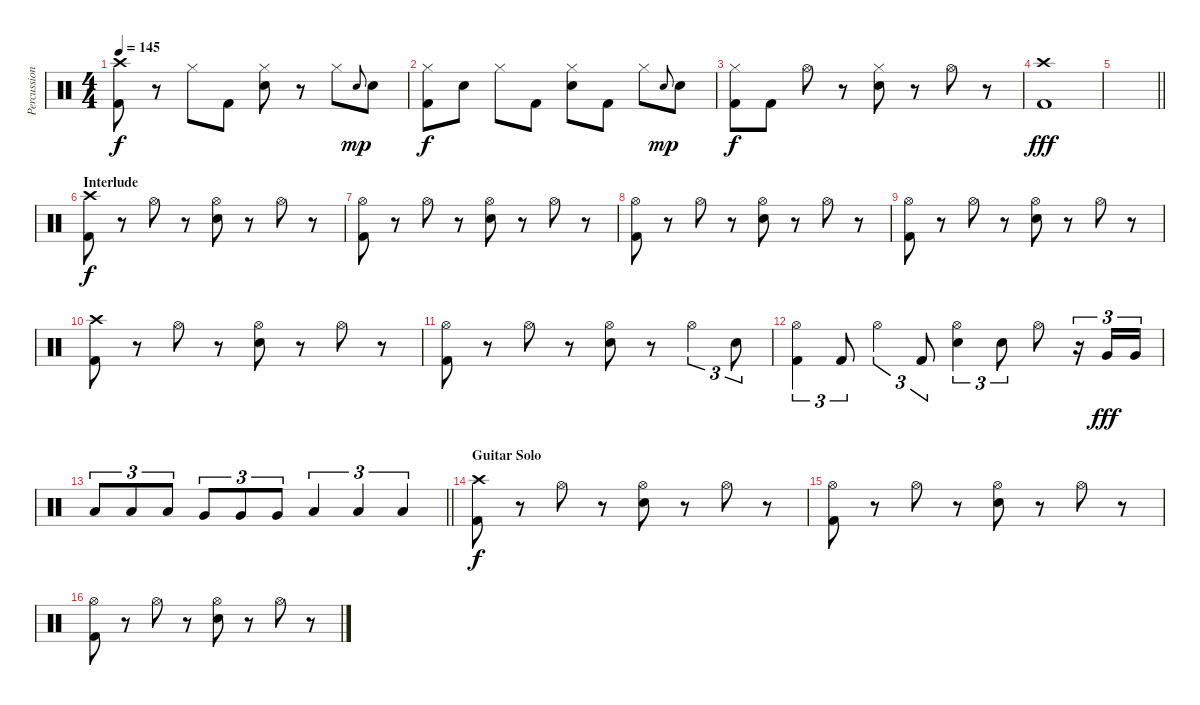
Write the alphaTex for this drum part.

\track ("Percussion" "Percussion") {instrument percussion}
\staff {score}
\articulation defaults
\ts (4 4)
\tempo 145
\clef neutral
\ks c
("Crash high (hit)" "Kick (hit) 2").8{dy f} r.8 "Hi-Hat (closed)".8 "Kick (hit) 2".8 ("Hi-Hat (closed)" "Snare (hit) 2").8 r.8 "Hi-Hat (closed)".8 "Snare (hit) 2".8{gr onbeat dy mp} "Snare (hit) 2".8 |
("Hi-Hat (closed)" "Kick (hit) 2").8{dy f} "Snare (hit) 2".8 "Hi-Hat (closed)".8 "Kick (hit) 2".8 ("Hi-Hat (closed)" "Snare (hit) 2").8 "Kick (hit) 2".8 "Hi-Hat (closed)".8 "Snare (hit) 2".8{gr onbeat dy mp} "Snare (hit) 2".8 |
("Hi-Hat (closed)" "Kick (hit) 2").8{dy f} "Kick (hit) 2".8 "Hi-Hat (open)".8 r.8 ("Hi-Hat (closed)" "Snare (hit) 2").8 r.8 "Hi-Hat (open)".8 r.8 |
("Crash high (hit)" "Kick (hit) 2").1{dy fff} |
\barLineRight lightlight
|
\section ("" "Interlude")
("Crash high (hit)" "Kick (hit) 2").8{dy f} r.8 "Hi-Hat (open)".8 r.8 ("Hi-Hat (open)" "Snare (hit) 2").8 r.8 "Hi-Hat (open)".8 r.8 |
("Hi-Hat (open)" "Kick (hit) 2").8 r.8 "Hi-Hat (open)".8 r.8 ("Hi-Hat (open)" "Snare (hit) 2").8 r.8 "Hi-Hat (open)".8 r.8 |
("Hi-Hat (open)" "Kick (hit) 2").8 r.8 "Hi-Hat (open)".8 r.8 ("Hi-Hat (open)" "Snare (hit) 2").8 r.8 "Hi-Hat (open)".8 r.8 |
("Hi-Hat (open)" "Kick (hit) 2").8 r.8 "Hi-Hat (open)".8 r.8 ("Hi-Hat (open)" "Snare (hit) 2").8 r.8 "Hi-Hat (open)".8 r.8 |
("Crash high (hit)" "Kick (hit) 2").8 r.8 "Hi-Hat (open)".8 r.8 ("Hi-Hat (open)" "Snare (hit) 2").8 r.8 "Hi-Hat (open)".8 r.8 |
("Hi-Hat (open)" "Kick (hit) 2").8 r.8 "Hi-Hat (open)".8 r.8 ("Hi-Hat (open)" "Snare (hit) 2").8 r.8 "Hi-Hat (open)".4{tu (3 2)} "Snare (hit) 2".8{tu (3 2)} |
("Hi-Hat (open)" "Kick (hit) 2").4{tu (3 2)} "Kick (hit) 2".8{tu (3 2)} "Hi-Hat (open)".4{tu (3 2)} "Kick (hit) 2".8{tu (3 2)} ("Hi-Hat (open)" "Snare (hit) 2").4{tu (3 2)} "Snare (hit) 2".8{tu (3 2)} "Hi-Hat (open)".8 r.16{tu (3 2)} "Very Low Tom (hit)".16{tu (3 2) dy fff} "Very Low Tom (hit)".16{tu (3 2)} |
\barLineRight lightlight "Low Tom (hit)".8{tu (3 2)} "Low Tom (hit)".8{tu (3 2)} "Low Tom (hit)".8{tu (3 2)} "Very Low Tom (hit)".8{tu (3 2)} "Very Low Tom (hit)".8{tu (3 2)} "Very Low Tom (hit)".8{tu (3 2)} "Low Floor Tom (hit)".4{tu (3 2)} "Low Floor Tom (hit)".4{tu (3 2)} "Low Floor Tom (hit)".4{tu (3 2)}
|
\section ("" "Guitar Solo")
("Crash high (hit)" "Kick (hit) 2").8{dy f} r.8 "Hi-Hat (open)".8 r.8 ("Hi-Hat (open)" "Snare (hit) 2").8 r.8 "Hi-Hat (open)".8 r.8 |
("Hi-Hat (open)" "Kick (hit) 2").8 r.8 "Hi-Hat (open)".8 r.8 ("Hi-Hat (open)" "Snare (hit) 2").8 r.8 "Hi-Hat (open)".8 r.8 |
("Hi-Hat (open)" "Kick (hit) 2").8 r.8 "Hi-Hat (open)".8 r.8 ("Hi-Hat (open)" "Snare (hit) 2").8 r.8 "Hi-Hat (open)".8 r.8
